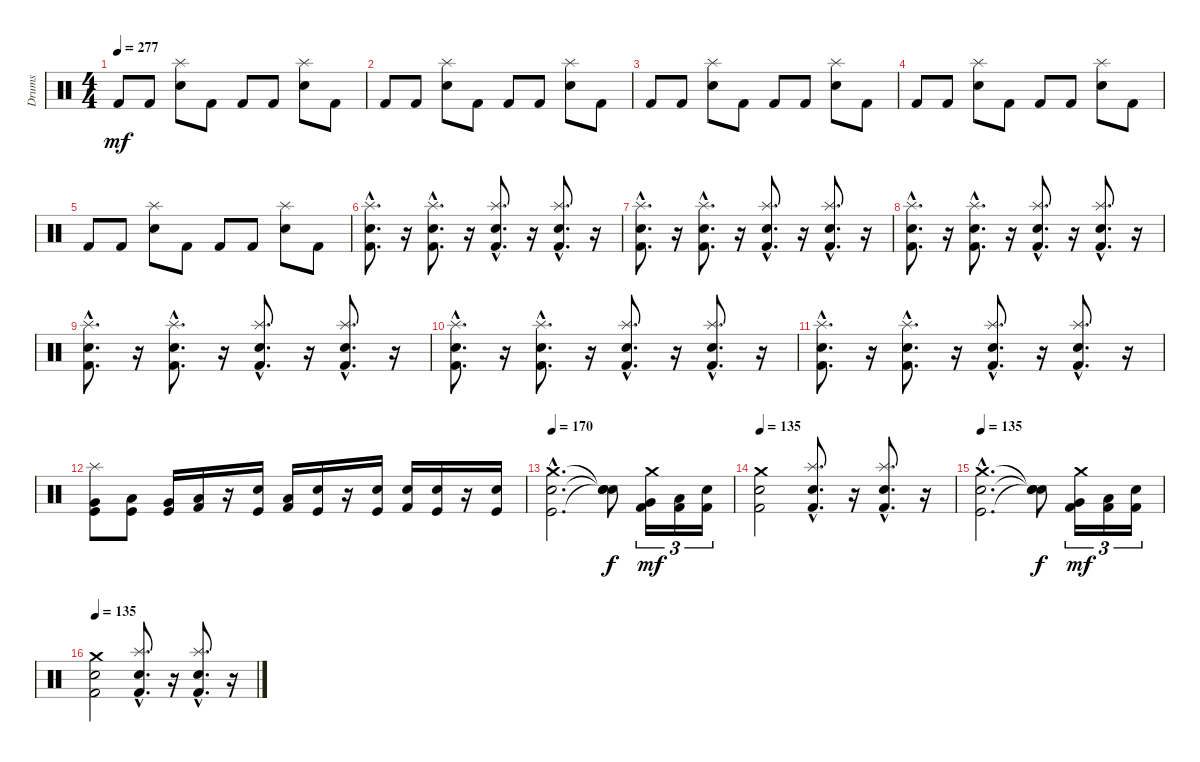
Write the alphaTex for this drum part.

\track ("Drums" "Drums") {instrument percussion}
\staff {score}
\articulation defaults
\ts (4 4)
\tempo 277
\clef neutral
\ks c "Kick (hit) 2".8{dy mf} "Kick (hit) 2".8
("Electric Snare (hit)" "Splash (hit)").8 "Kick (hit) 2".8 "Kick (hit) 2".8 "Kick (hit) 2".8 ("Electric Snare (hit)" "Splash (hit)").8 "Kick (hit) 2".8 |
"Kick (hit) 2".8 "Kick (hit) 2".8 ("Electric Snare (hit)" "Splash (hit)").8 "Kick (hit) 2".8 "Kick (hit) 2".8 "Kick (hit) 2".8 ("Electric Snare (hit)" "Splash (hit)").8 "Kick (hit) 2".8 |
"Kick (hit) 2".8 "Kick (hit) 2".8 ("Electric Snare (hit)" "Splash (hit)").8 "Kick (hit) 2".8 "Kick (hit) 2".8 "Kick (hit) 2".8 ("Electric Snare (hit)" "Splash (hit)").8 "Kick (hit) 2".8 |
"Kick (hit) 2".8 "Kick (hit) 2".8 ("Electric Snare (hit)" "Splash (hit)").8 "Kick (hit) 2".8 "Kick (hit) 2".8 "Kick (hit) 2".8 ("Splash (hit)" "Electric Snare (hit)").8 "Kick (hit) 2".8 |
"Kick (hit) 2".8 "Kick (hit) 2".8 ("Electric Snare (hit)" "Splash (hit)").8 "Kick (hit) 2".8 "Kick (hit) 2".8 "Kick (hit) 2".8 ("Electric Snare (hit)" "Splash (hit)").8 "Kick (hit) 2".8 |
("Splash (hit)"{hac} "Kick (hit) 2"{hac} "Electric Snare (hit)"{hac}).8{d} r.16 ("Kick (hit) 2"{hac} "Splash (hit)"{hac} "Electric Snare (hit)"{hac}).8{d} r.16 ("Kick (hit) 2"{hac} "Snare (hit) 2"{hac} "Splash (hit)"{hac}).8{d} r.16 ("Kick (hit) 2"{hac} "Snare (hit) 2"{hac} "Splash (hit)"{hac}).8{d} r.16 |
("Splash (hit)"{hac} "Kick (hit) 2"{hac} "Electric Snare (hit)"{hac}).8{d} r.16 ("Electric Snare (hit)"{hac} "Kick (hit) 2"{hac} "Splash (hit)"{hac}).8{d} r.16 ("Splash (hit)"{hac} "Snare (hit) 2"{hac} "Kick (hit) 2"{hac}).8{d} r.16 ("Splash (hit)"{hac} "Kick (hit) 2"{hac} "Snare (hit) 2"{hac}).8{d} r.16 |
("Splash (hit)"{hac} "Electric Snare (hit)"{hac} "Kick (hit) 2"{hac}).8{d} r.16 ("Electric Snare (hit)"{hac} "Splash (hit)"{hac} "Kick (hit) 2"{hac}).8{d} r.16 ("Snare (hit) 2"{hac} "Kick (hit) 2"{hac} "Splash (hit)"{hac}).8{d} r.16 ("Kick (hit) 2"{hac} "Splash (hit)"{hac} "Snare (hit) 2"{hac}).8{d} r.16 |
("Splash (hit)"{hac} "Electric Snare (hit)"{hac} "Kick (hit) 2"{hac}).8{d} r.16 ("Electric Snare (hit)"{hac} "Splash (hit)"{hac} "Kick (hit) 2"{hac}).8{d} r.16 ("Splash (hit)"{hac} "Kick (hit) 2"{hac} "Snare (hit) 2"{hac}).8{d} r.16 ("Kick (hit) 2"{hac} "Splash (hit)"{hac} "Snare (hit) 2"{hac}).8{d} r.16 |
("Splash (hit)"{hac} "Electric Snare (hit)"{hac} "Kick (hit) 2"{hac}).8{d} r.16 ("Electric Snare (hit)"{hac} "Splash (hit)"{hac} "Kick (hit) 2"{hac}).8{d} r.16 ("Splash (hit)"{hac} "Kick (hit) 2"{hac} "Snare (hit) 2"{hac}).8{d} r.16 ("Kick (hit) 2"{hac} "Splash (hit)"{hac} "Snare (hit) 2"{hac}).8{d} r.16 |
("Splash (hit)"{hac} "Electric Snare (hit)"{hac} "Kick (hit) 2"{hac}).8{d} r.16 ("Splash (hit)"{hac} "Electric Snare (hit)"{hac} "Kick (hit) 2"{hac}).8{d} r.16 ("Snare (hit) 2"{hac} "Kick (hit) 2"{hac} "Splash (hit)"{hac}).8{d} r.16 ("Kick (hit) 2"{hac} "Splash (hit)"{hac} "Snare (hit) 2"{hac}).8{d} r.16 |
("Splash (hit)" "Very Low Tom (hit)" "Kick (hit)").8 ("Kick (hit)" "Low Floor Tom (hit)").8 ("Very Low Tom (hit)" "Kick (hit)").16 ("Kick (hit) 2" "Low Floor Tom (hit)").16 r.16 ("Kick (hit)" "Electric Snare (hit)").16 ("Low Floor Tom (hit)" "Kick (hit) 2").16 ("Electric Snare (hit)" "Kick (hit)").16 r.16 ("Snare (hit) 2" "Kick (hit)").16 ("Kick (hit) 2" "Electric Snare (hit)").16 ("Kick (hit)" "Snare (hit) 2").16 r.16 ("Electric Snare (hit)" "Kick (hit)").16 |
\tempo 170
("Crash medium (hit)"{hac} "Snare (hit) 2"{hac} "Kick (hit)"{hac}).2{d} ("Snare (hit)"{t} "Snare (hit)"{t} "Snare (hit)"{t}).8{dy f} ("Kick (hit) 2" "Crash medium (hit)" "Very Low Tom (hit)").16{tu (3 2) dy mf} ("Low Floor Tom (hit)" "Kick (hit) 2").16{tu (3 2)} ("Electric Snare (hit)" "Kick (hit) 2").16{tu (3 2)} |
\tempo 135
("Crash medium (hit)" "Kick (hit) 2" "Electric Snare (hit)").2 ("Splash (hit)"{hac} "Kick (hit) 2"{hac} "Snare (hit) 2"{hac}).8{d} r.16 ("Kick (hit) 2"{hac} "Snare (hit) 2"{hac} "Splash (hit)"{hac}).8{d} r.16 |
\tempo 135
("Crash medium (hit)"{hac} "Snare (hit) 2"{hac} "Kick (hit)"{hac}).2{d} ("Snare (hit)"{t} "Snare (hit)"{t} "Snare (hit)"{t}).8{dy f} ("Kick (hit) 2" "Crash medium (hit)" "Very Low Tom (hit)").16{tu (3 2) dy mf} ("Low Floor Tom (hit)" "Kick (hit) 2").16{tu (3 2)} ("Electric Snare (hit)" "Kick (hit) 2").16{tu (3 2)} |
\tempo 135
("Crash medium (hit)" "Electric Snare (hit)" "Kick (hit) 2").2 ("Kick (hit) 2"{hac} "Splash (hit)"{hac} "Snare (hit) 2"{hac}).8{d} r.16 ("Splash (hit)"{hac} "Snare (hit) 2"{hac} "Kick (hit) 2"{hac}).8{d} r.16
